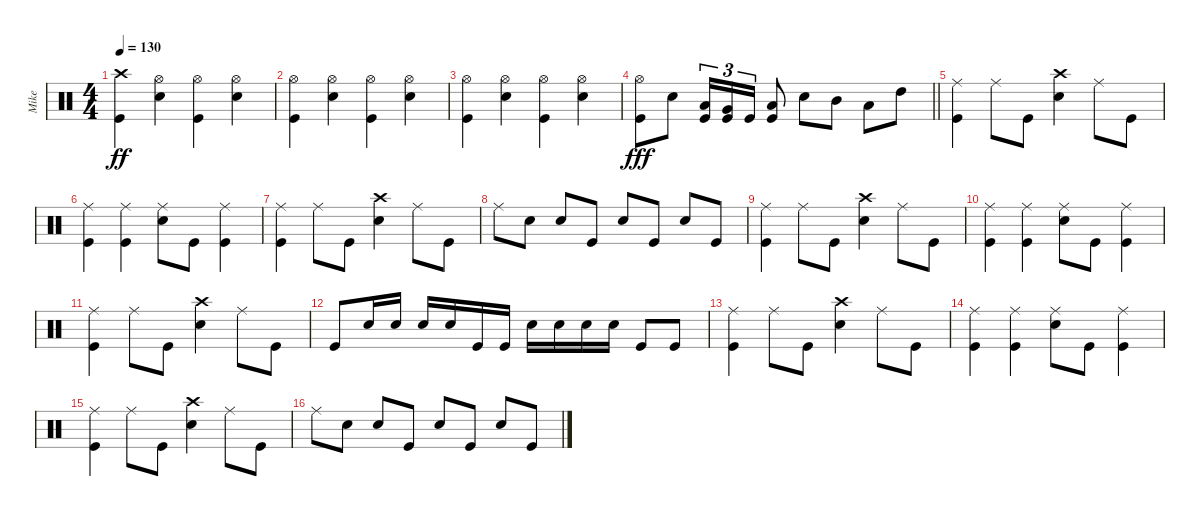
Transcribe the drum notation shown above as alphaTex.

\track ("Mike" "Mike") {instrument percussion}
\staff {score}
\articulation defaults
\ts (4 4)
\tempo 130
\clef neutral
\ks c
("Crash high (hit)" "Kick (hit)").4{dy ff} ("Snare (hit) 2" "Hi-Hat (open)").4 ("Hi-Hat (open)" "Kick (hit)").4 ("Snare (hit) 2" "Hi-Hat (open)").4 |
("Hi-Hat (open)" "Kick (hit)").4 ("Snare (hit) 2" "Hi-Hat (open)").4 ("Kick (hit)" "Hi-Hat (open)").4 ("Hi-Hat (open)" "Snare (hit) 2").4 |
("Kick (hit)" "Hi-Hat (open)").4 ("Hi-Hat (open)" "Snare (hit) 2").4 ("Kick (hit)" "Hi-Hat (open)").4 ("Hi-Hat (open)" "Snare (hit) 2").4 |
\barLineRight lightlight
("Hi-Hat (open)" "Kick (hit)").8{dy fff} "Snare (hit) 2".8 ("Low Tom (hit)" "Kick (hit)").16{tu (3 2)} ("Very Low Tom (hit)" "Kick (hit)").16{tu (3 2)} "Kick (hit)".16{tu (3 2)} ("Low Floor Tom (hit)" "Kick (hit)").8 "Snare (hit) 2".8 "Mid Tom (hit)".8 "Low Tom (hit)".8 "High Tom (hit)".8 |
("Kick (hit)" "Ride (middle)").4 "Ride (middle)".8 "Kick (hit)".8 ("Snare (hit) 2" "Crash high (hit)").4 "Ride (middle)".8 "Kick (hit)".8 |
("Kick (hit)" "Ride (middle)").4 ("Kick (hit)" "Ride (middle)").4 ("Snare (hit) 2" "Ride (middle)").8 "Kick (hit)".8 ("Ride (middle)" "Kick (hit)").4 |
("Ride (middle)" "Kick (hit)").4 "Ride (middle)".8 "Kick (hit)".8 ("Snare (hit) 2" "Crash high (hit)").4 "Ride (middle)".8 "Kick (hit)".8 |
"Ride (middle)".8 "Snare (hit) 2".8 "Snare (hit) 2".8 "Kick (hit)".8 "Snare (hit) 2".8 "Kick (hit)".8 "Snare (hit) 2".8 "Kick (hit)".8 |
("Kick (hit)" "Ride (middle)").4 "Ride (middle)".8 "Kick (hit)".8 ("Snare (hit) 2" "Crash high (hit)").4 "Ride (middle)".8 "Kick (hit)".8 |
("Kick (hit)" "Ride (middle)").4 ("Kick (hit)" "Ride (middle)").4 ("Snare (hit) 2" "Ride (middle)").8 "Kick (hit)".8 ("Ride (middle)" "Kick (hit)").4 |
("Ride (middle)" "Kick (hit)").4 "Ride (middle)".8 "Kick (hit)".8 ("Snare (hit) 2" "Crash high (hit)").4 "Ride (middle)".8 "Kick (hit)".8 |
"Kick (hit)".8 "Snare (hit) 2".16 "Snare (hit) 2".16 "Snare (hit) 2".16 "Snare (hit) 2".16 "Kick (hit)".16 "Kick (hit)".16 "Snare (hit) 2".16 "Snare (hit) 2".16 "Snare (hit) 2".16 "Snare (hit) 2".16 "Kick (hit)".8 "Kick (hit)".8 |
("Kick (hit)" "Ride (middle)").4 "Ride (middle)".8 "Kick (hit)".8 ("Snare (hit) 2" "Crash high (hit)").4 "Ride (middle)".8 "Kick (hit)".8 |
("Kick (hit)" "Ride (middle)").4 ("Kick (hit)" "Ride (middle)").4 ("Snare (hit) 2" "Ride (middle)").8 "Kick (hit)".8 ("Ride (middle)" "Kick (hit)").4 |
("Ride (middle)" "Kick (hit)").4 "Ride (middle)".8 "Kick (hit)".8 ("Snare (hit) 2" "Crash high (hit)").4 "Ride (middle)".8 "Kick (hit)".8 |
"Ride (middle)".8 "Snare (hit) 2".8 "Snare (hit) 2".8 "Kick (hit)".8 "Snare (hit) 2".8 "Kick (hit)".8 "Snare (hit) 2".8 "Kick (hit)".8
